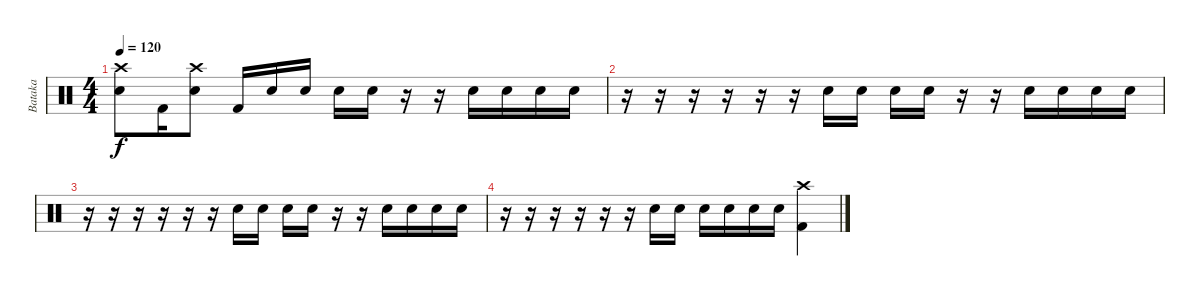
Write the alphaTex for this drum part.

\track ("Bataka" "Bataka") {instrument percussion}
\staff {score}
\articulation defaults
\ts (4 4)
\tempo 120
\clef neutral
\ks c
("Snare (hit) 2" "Crash high (hit)").8{dy f} "Kick (hit) 2".16 ("Snare (hit) 2" "Crash high (hit)").8 "Kick (hit) 2".16 "Snare (hit) 2".16 "Snare (hit) 2".16 "Snare (hit) 2".16 "Snare (hit) 2".16 r.16 r.16 "Snare (hit) 2".16 "Snare (hit) 2".16 "Snare (hit) 2".16 "Snare (hit) 2".16 |
r.16 r.16 r.16 r.16 r.16 r.16 "Snare (hit) 2".16 "Snare (hit) 2".16 "Snare (hit) 2".16 "Snare (hit) 2".16 r.16 r.16 "Snare (hit) 2".16 "Snare (hit) 2".16 "Snare (hit) 2".16 "Snare (hit) 2".16 |
r.16 r.16 r.16 r.16 r.16 r.16 "Snare (hit) 2".16 "Snare (hit) 2".16 "Snare (hit) 2".16 "Snare (hit) 2".16 r.16 r.16 "Snare (hit) 2".16 "Snare (hit) 2".16 "Snare (hit) 2".16 "Snare (hit) 2".16 |
r.16 r.16 r.16 r.16 r.16 r.16 "Snare (hit) 2".16 "Snare (hit) 2".16 "Snare (hit) 2".16 "Snare (hit) 2".16 "Snare (hit) 2".16 "Snare (hit) 2".16 ("Crash high (hit)" "Kick (hit) 2").4
